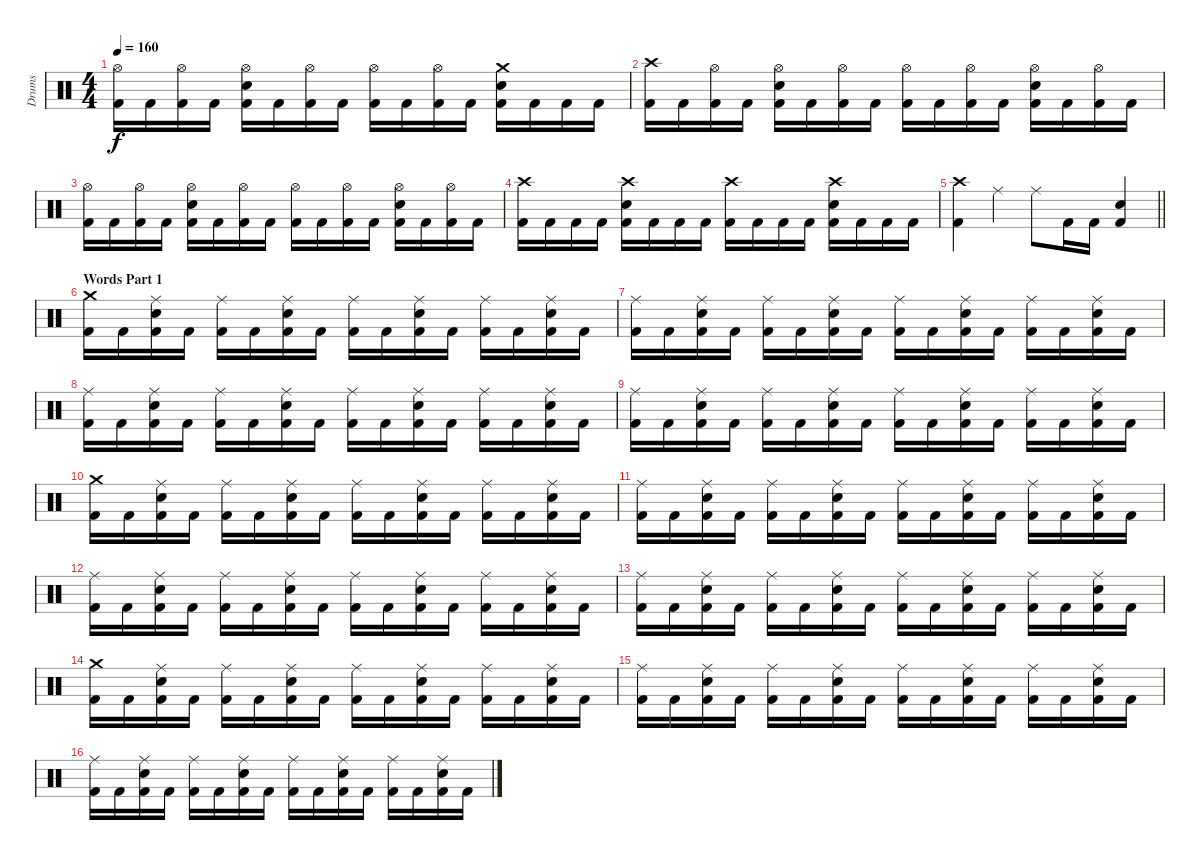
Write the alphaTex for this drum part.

\track ("Drums" "Drums") {instrument percussion}
\staff {score}
\articulation defaults
\ts (4 4)
\tempo 160
\clef neutral
\ks c
("Hi-Hat (open)" "Kick (hit) 2").16{dy f} "Kick (hit) 2".16 ("Hi-Hat (open)" "Kick (hit) 2").16 "Kick (hit) 2".16 ("Hi-Hat (open)" "Snare (hit) 2" "Kick (hit) 2").16 "Kick (hit) 2".16 ("Hi-Hat (open)" "Kick (hit) 2").16 "Kick (hit) 2".16 ("Hi-Hat (open)" "Kick (hit) 2").16 "Kick (hit) 2".16 ("Hi-Hat (open)" "Kick (hit) 2").16 "Kick (hit) 2".16 ("Crash medium (hit)" "Snare (hit) 2" "Kick (hit) 2").16 "Kick (hit) 2".16 "Kick (hit) 2".16 "Kick (hit) 2".16 |
("Crash high (hit)" "Kick (hit) 2").16 "Kick (hit) 2".16 ("Hi-Hat (open)" "Kick (hit) 2").16 "Kick (hit) 2".16 ("Hi-Hat (open)" "Snare (hit) 2" "Kick (hit) 2").16 "Kick (hit) 2".16 ("Hi-Hat (open)" "Kick (hit) 2").16 "Kick (hit) 2".16 ("Hi-Hat (open)" "Kick (hit) 2").16 "Kick (hit) 2".16 ("Hi-Hat (open)" "Kick (hit) 2").16 "Kick (hit) 2".16 ("Hi-Hat (open)" "Snare (hit) 2" "Kick (hit) 2").16 "Kick (hit) 2".16 ("Hi-Hat (open)" "Kick (hit) 2").16 "Kick (hit) 2".16 |
("Hi-Hat (open)" "Kick (hit) 2").16 "Kick (hit) 2".16 ("Hi-Hat (open)" "Kick (hit) 2").16 "Kick (hit) 2".16 ("Hi-Hat (open)" "Snare (hit) 2" "Kick (hit) 2").16 "Kick (hit) 2".16 ("Hi-Hat (open)" "Kick (hit) 2").16 "Kick (hit) 2".16 ("Hi-Hat (open)" "Kick (hit) 2").16 "Kick (hit) 2".16 ("Hi-Hat (open)" "Kick (hit) 2").16 "Kick (hit) 2".16 ("Hi-Hat (open)" "Snare (hit) 2" "Kick (hit) 2").16 "Kick (hit) 2".16 ("Hi-Hat (open)" "Kick (hit) 2").16 "Kick (hit) 2".16 |
("Crash high (hit)" "Kick (hit) 2").16 "Kick (hit) 2".16 "Kick (hit) 2".16 "Kick (hit) 2".16 ("Crash high (hit)" "Snare (hit) 2" "Kick (hit) 2").16 "Kick (hit) 2".16 "Kick (hit) 2".16 "Kick (hit) 2".16 ("Crash high (hit)" "Kick (hit) 2").16 "Kick (hit) 2".16 "Kick (hit) 2".16 "Kick (hit) 2".16 ("Crash high (hit)" "Snare (hit) 2" "Kick (hit) 2").16 "Kick (hit) 2".16 "Kick (hit) 2".16 "Kick (hit) 2".16 |
\barLineRight lightlight
("Crash high (hit)" "Kick (hit) 2").4 "Ride (middle)".4 "Ride (middle)".8 "Kick (hit) 2".16 "Kick (hit) 2".16 ("Snare (hit) 2" "Kick (hit) 2").4 |
\section ("" "Words Part 1")
("Crash medium (hit)" "Kick (hit) 2").16 "Kick (hit) 2".16 ("Ride (middle)" "Snare (hit) 2" "Kick (hit) 2").16 "Kick (hit) 2".16 ("Ride (middle)" "Kick (hit) 2").16 "Kick (hit) 2".16 ("Ride (middle)" "Snare (hit) 2" "Kick (hit) 2").16 "Kick (hit) 2".16 ("Ride (middle)" "Kick (hit) 2").16 "Kick (hit) 2".16 ("Ride (middle)" "Snare (hit) 2" "Kick (hit) 2").16 "Kick (hit) 2".16 ("Ride (middle)" "Kick (hit) 2").16 "Kick (hit) 2".16 ("Ride (middle)" "Snare (hit) 2" "Kick (hit) 2").16 "Kick (hit) 2".16 |
("Ride (middle)" "Kick (hit) 2").16 "Kick (hit) 2".16 ("Ride (middle)" "Snare (hit) 2" "Kick (hit) 2").16 "Kick (hit) 2".16 ("Ride (middle)" "Kick (hit) 2").16 "Kick (hit) 2".16 ("Ride (middle)" "Snare (hit) 2" "Kick (hit) 2").16 "Kick (hit) 2".16 ("Ride (middle)" "Kick (hit) 2").16 "Kick (hit) 2".16 ("Ride (middle)" "Snare (hit) 2" "Kick (hit) 2").16 "Kick (hit) 2".16 ("Ride (middle)" "Kick (hit) 2").16 "Kick (hit) 2".16 ("Ride (middle)" "Snare (hit) 2" "Kick (hit) 2").16 "Kick (hit) 2".16 |
("Ride (middle)" "Kick (hit) 2").16 "Kick (hit) 2".16 ("Ride (middle)" "Snare (hit) 2" "Kick (hit) 2").16 "Kick (hit) 2".16 ("Ride (middle)" "Kick (hit) 2").16 "Kick (hit) 2".16 ("Ride (middle)" "Snare (hit) 2" "Kick (hit) 2").16 "Kick (hit) 2".16 ("Ride (middle)" "Kick (hit) 2").16 "Kick (hit) 2".16 ("Ride (middle)" "Snare (hit) 2" "Kick (hit) 2").16 "Kick (hit) 2".16 ("Ride (middle)" "Kick (hit) 2").16 "Kick (hit) 2".16 ("Ride (middle)" "Snare (hit) 2" "Kick (hit) 2").16 "Kick (hit) 2".16 |
("Ride (middle)" "Kick (hit) 2").16 "Kick (hit) 2".16 ("Ride (middle)" "Snare (hit) 2" "Kick (hit) 2").16 "Kick (hit) 2".16 ("Ride (middle)" "Kick (hit) 2").16 "Kick (hit) 2".16 ("Ride (middle)" "Snare (hit) 2" "Kick (hit) 2").16 "Kick (hit) 2".16 ("Ride (middle)" "Kick (hit) 2").16 "Kick (hit) 2".16 ("Ride (middle)" "Snare (hit) 2" "Kick (hit) 2").16 "Kick (hit) 2".16 ("Ride (middle)" "Kick (hit) 2").16 "Kick (hit) 2".16 ("Ride (middle)" "Snare (hit) 2" "Kick (hit) 2").16 "Kick (hit) 2".16 |
("Crash medium (hit)" "Kick (hit) 2").16 "Kick (hit) 2".16 ("Ride (middle)" "Snare (hit) 2" "Kick (hit) 2").16 "Kick (hit) 2".16 ("Ride (middle)" "Kick (hit) 2").16 "Kick (hit) 2".16 ("Ride (middle)" "Snare (hit) 2" "Kick (hit) 2").16 "Kick (hit) 2".16 ("Ride (middle)" "Kick (hit) 2").16 "Kick (hit) 2".16 ("Ride (middle)" "Snare (hit) 2" "Kick (hit) 2").16 "Kick (hit) 2".16 ("Ride (middle)" "Kick (hit) 2").16 "Kick (hit) 2".16 ("Ride (middle)" "Snare (hit) 2" "Kick (hit) 2").16 "Kick (hit) 2".16 |
("Ride (middle)" "Kick (hit) 2").16 "Kick (hit) 2".16 ("Ride (middle)" "Snare (hit) 2" "Kick (hit) 2").16 "Kick (hit) 2".16 ("Ride (middle)" "Kick (hit) 2").16 "Kick (hit) 2".16 ("Ride (middle)" "Snare (hit) 2" "Kick (hit) 2").16 "Kick (hit) 2".16 ("Ride (middle)" "Kick (hit) 2").16 "Kick (hit) 2".16 ("Ride (middle)" "Snare (hit) 2" "Kick (hit) 2").16 "Kick (hit) 2".16 ("Ride (middle)" "Kick (hit) 2").16 "Kick (hit) 2".16 ("Ride (middle)" "Snare (hit) 2" "Kick (hit) 2").16 "Kick (hit) 2".16 |
("Ride (middle)" "Kick (hit) 2").16 "Kick (hit) 2".16 ("Ride (middle)" "Snare (hit) 2" "Kick (hit) 2").16 "Kick (hit) 2".16 ("Ride (middle)" "Kick (hit) 2").16 "Kick (hit) 2".16 ("Ride (middle)" "Snare (hit) 2" "Kick (hit) 2").16 "Kick (hit) 2".16 ("Ride (middle)" "Kick (hit) 2").16 "Kick (hit) 2".16 ("Ride (middle)" "Snare (hit) 2" "Kick (hit) 2").16 "Kick (hit) 2".16 ("Ride (middle)" "Kick (hit) 2").16 "Kick (hit) 2".16 ("Ride (middle)" "Snare (hit) 2" "Kick (hit) 2").16 "Kick (hit) 2".16 |
("Ride (middle)" "Kick (hit) 2").16 "Kick (hit) 2".16 ("Ride (middle)" "Snare (hit) 2" "Kick (hit) 2").16 "Kick (hit) 2".16 ("Ride (middle)" "Kick (hit) 2").16 "Kick (hit) 2".16 ("Ride (middle)" "Snare (hit) 2" "Kick (hit) 2").16 "Kick (hit) 2".16 ("Ride (middle)" "Kick (hit) 2").16 "Kick (hit) 2".16 ("Ride (middle)" "Snare (hit) 2" "Kick (hit) 2").16 "Kick (hit) 2".16 ("Ride (middle)" "Kick (hit) 2").16 "Kick (hit) 2".16 ("Ride (middle)" "Snare (hit) 2" "Kick (hit) 2").16 "Kick (hit) 2".16 |
("Crash medium (hit)" "Kick (hit) 2").16 "Kick (hit) 2".16 ("Ride (middle)" "Snare (hit) 2" "Kick (hit) 2").16 "Kick (hit) 2".16 ("Ride (middle)" "Kick (hit) 2").16 "Kick (hit) 2".16 ("Ride (middle)" "Snare (hit) 2" "Kick (hit) 2").16 "Kick (hit) 2".16 ("Ride (middle)" "Kick (hit) 2").16 "Kick (hit) 2".16 ("Ride (middle)" "Snare (hit) 2" "Kick (hit) 2").16 "Kick (hit) 2".16 ("Ride (middle)" "Kick (hit) 2").16 "Kick (hit) 2".16 ("Ride (middle)" "Snare (hit) 2" "Kick (hit) 2").16 "Kick (hit) 2".16 |
("Ride (middle)" "Kick (hit) 2").16 "Kick (hit) 2".16 ("Ride (middle)" "Snare (hit) 2" "Kick (hit) 2").16 "Kick (hit) 2".16 ("Ride (middle)" "Kick (hit) 2").16 "Kick (hit) 2".16 ("Ride (middle)" "Snare (hit) 2" "Kick (hit) 2").16 "Kick (hit) 2".16 ("Ride (middle)" "Kick (hit) 2").16 "Kick (hit) 2".16 ("Ride (middle)" "Snare (hit) 2" "Kick (hit) 2").16 "Kick (hit) 2".16 ("Ride (middle)" "Kick (hit) 2").16 "Kick (hit) 2".16 ("Ride (middle)" "Snare (hit) 2" "Kick (hit) 2").16 "Kick (hit) 2".16 |
("Ride (middle)" "Kick (hit) 2").16 "Kick (hit) 2".16 ("Ride (middle)" "Snare (hit) 2" "Kick (hit) 2").16 "Kick (hit) 2".16 ("Ride (middle)" "Kick (hit) 2").16 "Kick (hit) 2".16 ("Ride (middle)" "Snare (hit) 2" "Kick (hit) 2").16 "Kick (hit) 2".16 ("Ride (middle)" "Kick (hit) 2").16 "Kick (hit) 2".16 ("Ride (middle)" "Snare (hit) 2" "Kick (hit) 2").16 "Kick (hit) 2".16 ("Ride (middle)" "Kick (hit) 2").16 "Kick (hit) 2".16 ("Ride (middle)" "Snare (hit) 2" "Kick (hit) 2").16 "Kick (hit) 2".16
